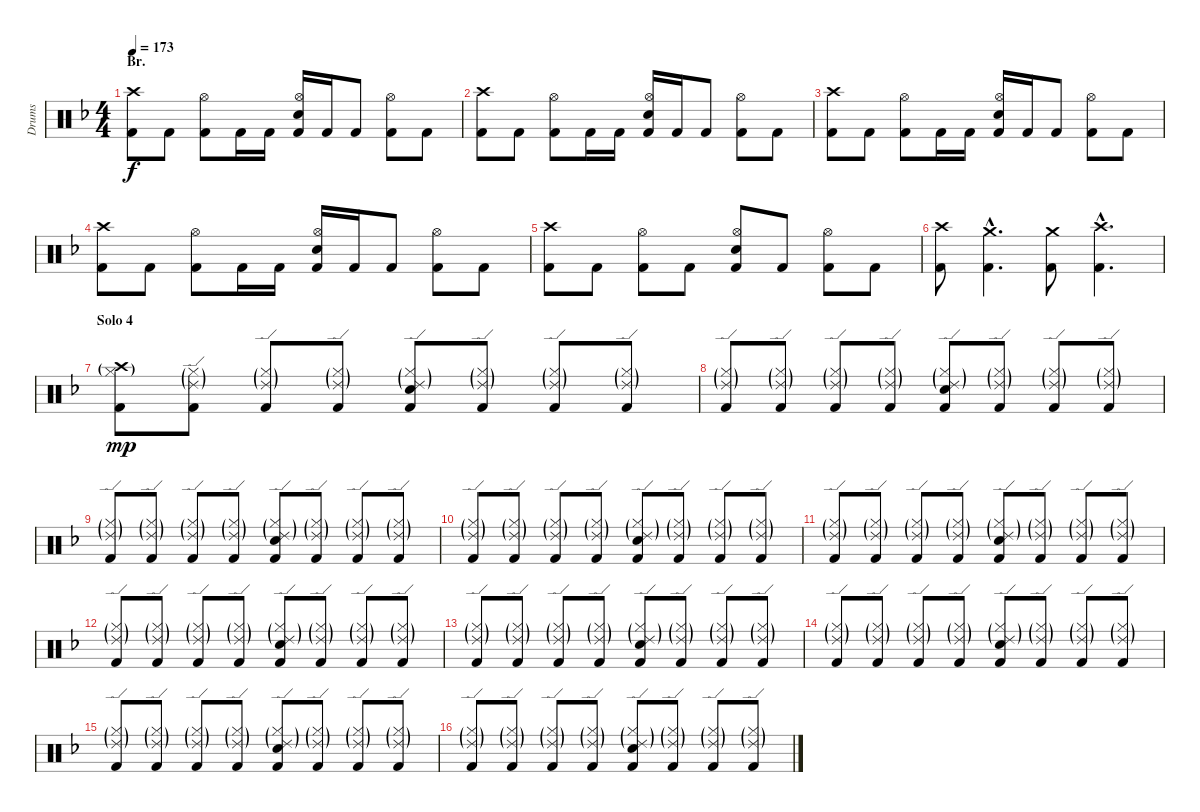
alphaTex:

\track ("Drums" "Drums") {instrument percussion}
\staff {score}
\articulation defaults
\ts (4 4)
\section ("" "Br.")
\tempo 173
\clef neutral
\ks dminor
("Crash high (hit)" "Kick (hit) 2").8{dy f} "Kick (hit) 2".8 ("Hi-Hat (open)" "Kick (hit) 2").8 "Kick (hit) 2".16 "Kick (hit) 2".16 ("Hi-Hat (open)" "Snare (hit) 2" "Kick (hit) 2").16 "Kick (hit) 2".16 "Kick (hit) 2".8 ("Hi-Hat (open)" "Kick (hit) 2").8 "Kick (hit) 2".8 |
("Crash high (hit)" "Kick (hit) 2").8 "Kick (hit) 2".8 ("Hi-Hat (open)" "Kick (hit) 2").8 "Kick (hit) 2".16 "Kick (hit) 2".16 ("Hi-Hat (open)" "Snare (hit) 2" "Kick (hit) 2").16 "Kick (hit) 2".16 "Kick (hit) 2".8 ("Hi-Hat (open)" "Kick (hit) 2").8 "Kick (hit) 2".8 |
("Crash high (hit)" "Kick (hit) 2").8 "Kick (hit) 2".8 ("Hi-Hat (open)" "Kick (hit) 2").8 "Kick (hit) 2".16 "Kick (hit) 2".16 ("Hi-Hat (open)" "Snare (hit) 2" "Kick (hit) 2").16 "Kick (hit) 2".16 "Kick (hit) 2".8 ("Hi-Hat (open)" "Kick (hit) 2").8 "Kick (hit) 2".8 |
("Crash high (hit)" "Kick (hit) 2").8 "Kick (hit) 2".8 ("Hi-Hat (open)" "Kick (hit) 2").8 "Kick (hit) 2".16 "Kick (hit) 2".16 ("Hi-Hat (open)" "Snare (hit) 2" "Kick (hit) 2").16 "Kick (hit) 2".16 "Kick (hit) 2".8 ("Hi-Hat (open)" "Kick (hit) 2").8 "Kick (hit) 2".8 |
("Crash high (hit)" "Kick (hit) 2").8 "Kick (hit) 2".8 ("Hi-Hat (open)" "Kick (hit) 2").8 "Kick (hit) 2".8 ("Hi-Hat (open)" "Snare (hit) 2" "Kick (hit) 2").8 "Kick (hit) 2".8 ("Hi-Hat (open)" "Kick (hit) 2").8 "Kick (hit) 2".8 |
("Crash high (hit)" "Kick (hit) 2").8 ("Crash medium (hit)"{hac} "Kick (hit) 2"{hac}).4{d} ("Crash medium (hit)" "Kick (hit) 2").8 ("Crash high (hit)"{hac} "Kick (hit) 2"{hac}).4{d} |
\section ("" "Solo 4")
("Crash high (hit)"{g} "Hi-Hat (closed)"{g} "Kick (hit) 2").8{dy mp} ("Ride (edge) 2"{g} "Hi-Hat (closed)"{g} "Kick (hit) 2").8 ("Ride (edge) 2"{g} "Hi-Hat (closed)"{g} "Kick (hit) 2").8 ("Ride (edge) 2"{g} "Hi-Hat (closed)"{g} "Kick (hit) 2").8 ("Ride (edge) 2"{g} "Hi-Hat (closed)"{g} "Snare (hit) 2" "Kick (hit) 2").8 ("Ride (edge) 2"{g} "Hi-Hat (closed)"{g} "Kick (hit) 2").8 ("Ride (edge) 2"{g} "Hi-Hat (closed)"{g} "Kick (hit) 2").8 ("Ride (edge) 2"{g} "Hi-Hat (closed)"{g} "Kick (hit) 2").8 |
("Ride (edge) 2"{g} "Hi-Hat (closed)"{g} "Kick (hit) 2").8 ("Ride (edge) 2"{g} "Hi-Hat (closed)"{g} "Kick (hit) 2").8 ("Ride (edge) 2"{g} "Hi-Hat (closed)"{g} "Kick (hit) 2").8 ("Ride (edge) 2"{g} "Hi-Hat (closed)"{g} "Kick (hit) 2").8 ("Ride (edge) 2"{g} "Hi-Hat (closed)"{g} "Snare (hit) 2" "Kick (hit) 2").8 ("Ride (edge) 2"{g} "Hi-Hat (closed)"{g} "Kick (hit) 2").8 ("Ride (edge) 2"{g} "Hi-Hat (closed)"{g} "Kick (hit) 2").8 ("Ride (edge) 2"{g} "Hi-Hat (closed)"{g} "Kick (hit) 2").8 |
("Ride (edge) 2"{g} "Hi-Hat (closed)"{g} "Kick (hit) 2").8 ("Ride (edge) 2"{g} "Hi-Hat (closed)"{g} "Kick (hit) 2").8 ("Ride (edge) 2"{g} "Hi-Hat (closed)"{g} "Kick (hit) 2").8 ("Ride (edge) 2"{g} "Hi-Hat (closed)"{g} "Kick (hit) 2").8 ("Ride (edge) 2"{g} "Hi-Hat (closed)"{g} "Snare (hit) 2" "Kick (hit) 2").8 ("Ride (edge) 2"{g} "Hi-Hat (closed)"{g} "Kick (hit) 2").8 ("Ride (edge) 2"{g} "Hi-Hat (closed)"{g} "Kick (hit) 2").8 ("Ride (edge) 2"{g} "Hi-Hat (closed)"{g} "Kick (hit) 2").8 |
("Ride (edge) 2"{g} "Hi-Hat (closed)"{g} "Kick (hit) 2").8 ("Ride (edge) 2"{g} "Hi-Hat (closed)"{g} "Kick (hit) 2").8 ("Ride (edge) 2"{g} "Hi-Hat (closed)"{g} "Kick (hit) 2").8 ("Ride (edge) 2"{g} "Hi-Hat (closed)"{g} "Kick (hit) 2").8 ("Ride (edge) 2"{g} "Hi-Hat (closed)"{g} "Snare (hit) 2" "Kick (hit) 2").8 ("Ride (edge) 2"{g} "Hi-Hat (closed)"{g} "Kick (hit) 2").8 ("Ride (edge) 2"{g} "Hi-Hat (closed)"{g} "Kick (hit) 2").8 ("Ride (edge) 2"{g} "Hi-Hat (closed)"{g} "Kick (hit) 2").8 |
("Ride (edge) 2"{g} "Hi-Hat (closed)"{g} "Kick (hit) 2").8 ("Ride (edge) 2"{g} "Hi-Hat (closed)"{g} "Kick (hit) 2").8 ("Ride (edge) 2"{g} "Hi-Hat (closed)"{g} "Kick (hit) 2").8 ("Ride (edge) 2"{g} "Hi-Hat (closed)"{g} "Kick (hit) 2").8 ("Ride (edge) 2"{g} "Hi-Hat (closed)"{g} "Snare (hit) 2" "Kick (hit) 2").8 ("Ride (edge) 2"{g} "Hi-Hat (closed)"{g} "Kick (hit) 2").8 ("Ride (edge) 2"{g} "Hi-Hat (closed)"{g} "Kick (hit) 2").8 ("Ride (edge) 2"{g} "Hi-Hat (closed)"{g} "Kick (hit) 2").8 |
("Ride (edge) 2"{g} "Hi-Hat (closed)"{g} "Kick (hit) 2").8 ("Ride (edge) 2"{g} "Hi-Hat (closed)"{g} "Kick (hit) 2").8 ("Ride (edge) 2"{g} "Hi-Hat (closed)"{g} "Kick (hit) 2").8 ("Ride (edge) 2"{g} "Hi-Hat (closed)"{g} "Kick (hit) 2").8 ("Ride (edge) 2"{g} "Hi-Hat (closed)"{g} "Snare (hit) 2" "Kick (hit) 2").8 ("Ride (edge) 2"{g} "Hi-Hat (closed)"{g} "Kick (hit) 2").8 ("Ride (edge) 2"{g} "Hi-Hat (closed)"{g} "Kick (hit) 2").8 ("Ride (edge) 2"{g} "Hi-Hat (closed)"{g} "Kick (hit) 2").8 |
("Ride (edge) 2"{g} "Hi-Hat (closed)"{g} "Kick (hit) 2").8 ("Ride (edge) 2"{g} "Hi-Hat (closed)"{g} "Kick (hit) 2").8 ("Ride (edge) 2"{g} "Hi-Hat (closed)"{g} "Kick (hit) 2").8 ("Ride (edge) 2"{g} "Hi-Hat (closed)"{g} "Kick (hit) 2").8 ("Ride (edge) 2"{g} "Hi-Hat (closed)"{g} "Snare (hit) 2" "Kick (hit) 2").8 ("Ride (edge) 2"{g} "Hi-Hat (closed)"{g} "Kick (hit) 2").8 ("Ride (edge) 2"{g} "Hi-Hat (closed)"{g} "Kick (hit) 2").8 ("Ride (edge) 2"{g} "Hi-Hat (closed)"{g} "Kick (hit) 2").8 |
("Ride (edge) 2"{g} "Hi-Hat (closed)"{g} "Kick (hit) 2").8 ("Ride (edge) 2"{g} "Hi-Hat (closed)"{g} "Kick (hit) 2").8 ("Ride (edge) 2"{g} "Hi-Hat (closed)"{g} "Kick (hit) 2").8 ("Ride (edge) 2"{g} "Hi-Hat (closed)"{g} "Kick (hit) 2").8 ("Ride (edge) 2"{g} "Hi-Hat (closed)"{g} "Snare (hit) 2" "Kick (hit) 2").8 ("Ride (edge) 2"{g} "Hi-Hat (closed)"{g} "Kick (hit) 2").8 ("Ride (edge) 2"{g} "Hi-Hat (closed)"{g} "Kick (hit) 2").8 ("Ride (edge) 2"{g} "Hi-Hat (closed)"{g} "Kick (hit) 2").8 |
("Ride (edge) 2"{g} "Hi-Hat (closed)"{g} "Kick (hit) 2").8 ("Ride (edge) 2"{g} "Hi-Hat (closed)"{g} "Kick (hit) 2").8 ("Ride (edge) 2"{g} "Hi-Hat (closed)"{g} "Kick (hit) 2").8 ("Ride (edge) 2"{g} "Hi-Hat (closed)"{g} "Kick (hit) 2").8 ("Ride (edge) 2"{g} "Hi-Hat (closed)"{g} "Snare (hit) 2" "Kick (hit) 2").8 ("Ride (edge) 2"{g} "Hi-Hat (closed)"{g} "Kick (hit) 2").8 ("Ride (edge) 2"{g} "Hi-Hat (closed)"{g} "Kick (hit) 2").8 ("Ride (edge) 2"{g} "Hi-Hat (closed)"{g} "Kick (hit) 2").8 |
("Ride (edge) 2"{g} "Hi-Hat (closed)"{g} "Kick (hit) 2").8 ("Ride (edge) 2"{g} "Hi-Hat (closed)"{g} "Kick (hit) 2").8 ("Ride (edge) 2"{g} "Hi-Hat (closed)"{g} "Kick (hit) 2").8 ("Ride (edge) 2"{g} "Hi-Hat (closed)"{g} "Kick (hit) 2").8 ("Ride (edge) 2"{g} "Hi-Hat (closed)"{g} "Snare (hit) 2" "Kick (hit) 2").8 ("Ride (edge) 2"{g} "Hi-Hat (closed)"{g} "Kick (hit) 2").8 ("Ride (edge) 2"{g} "Hi-Hat (closed)"{g} "Kick (hit) 2").8 ("Ride (edge) 2"{g} "Hi-Hat (closed)"{g} "Kick (hit) 2").8
